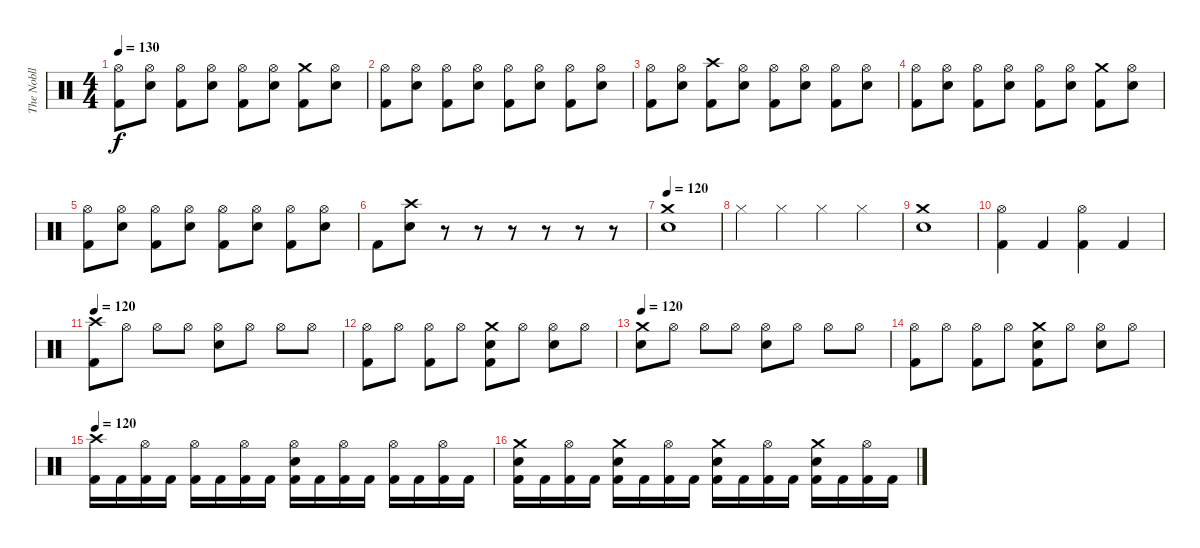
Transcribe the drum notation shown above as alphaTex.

\track ("The Nobll" "The Nobll") {instrument percussion}
\staff {score}
\articulation defaults
\ts (4 4)
\tempo 130
\clef neutral
\ks c
("Hi-Hat (open)" "Kick (hit) 2").8{dy f} ("Hi-Hat (open)" "Snare (hit) 2").8 ("Hi-Hat (open)" "Kick (hit) 2").8 ("Hi-Hat (open)" "Snare (hit) 2").8 ("Hi-Hat (open)" "Kick (hit) 2").8 ("Hi-Hat (open)" "Snare (hit) 2").8 ("Crash medium (hit)" "Kick (hit) 2").8 ("Hi-Hat (open)" "Snare (hit) 2").8 |
("Hi-Hat (open)" "Kick (hit) 2").8 ("Hi-Hat (open)" "Snare (hit) 2").8 ("Hi-Hat (open)" "Kick (hit) 2").8 ("Hi-Hat (open)" "Snare (hit) 2").8 ("Hi-Hat (open)" "Kick (hit) 2").8 ("Hi-Hat (open)" "Snare (hit) 2").8 ("Hi-Hat (open)" "Kick (hit) 2").8 ("Hi-Hat (open)" "Snare (hit) 2").8 |
("Hi-Hat (open)" "Kick (hit) 2").8 ("Hi-Hat (open)" "Snare (hit) 2").8 ("Crash high (hit)" "Kick (hit) 2").8 ("Hi-Hat (open)" "Snare (hit) 2").8 ("Hi-Hat (open)" "Kick (hit) 2").8 ("Hi-Hat (open)" "Snare (hit) 2").8 ("Hi-Hat (open)" "Kick (hit) 2").8 ("Hi-Hat (open)" "Snare (hit) 2").8 |
("Hi-Hat (open)" "Kick (hit) 2").8 ("Hi-Hat (open)" "Snare (hit) 2").8 ("Hi-Hat (open)" "Kick (hit) 2").8 ("Hi-Hat (open)" "Snare (hit) 2").8 ("Hi-Hat (open)" "Kick (hit) 2").8 ("Hi-Hat (open)" "Snare (hit) 2").8 ("Crash medium (hit)" "Kick (hit) 2").8 ("Hi-Hat (open)" "Snare (hit) 2").8 |
("Hi-Hat (open)" "Kick (hit) 2").8 ("Hi-Hat (open)" "Snare (hit) 2").8 ("Hi-Hat (open)" "Kick (hit) 2").8 ("Hi-Hat (open)" "Snare (hit) 2").8 ("Hi-Hat (open)" "Kick (hit) 2").8 ("Hi-Hat (open)" "Snare (hit) 2").8 ("Hi-Hat (open)" "Kick (hit) 2").8 ("Hi-Hat (open)" "Snare (hit) 2").8 |
"Kick (hit) 2".8 ("Crash high (hit)" "Snare (hit) 2").8 r.8 r.8 r.8 r.8 r.8 r.8 |
\tempo 120
("Crash medium (hit)" "Snare (hit) 2").1 |
"Hi-Hat (closed)".4 "Hi-Hat (closed)".4 "Hi-Hat (closed)".4 "Hi-Hat (closed)".4 |
("Crash medium (hit)" "Snare (hit) 2").1 |
("Hi-Hat (open)" "Kick (hit) 2").4 "Kick (hit) 2".4 ("Hi-Hat (open)" "Kick (hit) 2").4 "Kick (hit) 2".4 |
\tempo 120
("Crash high (hit)" "Kick (hit) 2").8 "Hi-Hat (open)".8 "Hi-Hat (open)".8 "Hi-Hat (open)".8 ("Hi-Hat (open)" "Snare (hit) 2").8 "Hi-Hat (open)".8 "Hi-Hat (open)".8 "Hi-Hat (open)".8 |
("Hi-Hat (open)" "Kick (hit) 2").8 "Hi-Hat (open)".8 ("Hi-Hat (open)" "Kick (hit) 2").8 "Hi-Hat (open)".8 ("Crash medium (hit)" "Snare (hit) 2" "Kick (hit) 2").8 "Hi-Hat (open)".8 ("Hi-Hat (open)" "Snare (hit) 2").8 "Hi-Hat (open)".8 |
\tempo 120
("Crash medium (hit)" "Snare (hit) 2").8 "Hi-Hat (open)".8 "Hi-Hat (open)".8 "Hi-Hat (open)".8 ("Hi-Hat (open)" "Snare (hit) 2").8 "Hi-Hat (open)".8 "Hi-Hat (open)".8 "Hi-Hat (open)".8 |
("Hi-Hat (open)" "Kick (hit) 2").8 "Hi-Hat (open)".8 ("Hi-Hat (open)" "Kick (hit) 2").8 "Hi-Hat (open)".8 ("Crash medium (hit)" "Snare (hit) 2" "Kick (hit) 2").8 "Hi-Hat (open)".8 ("Hi-Hat (open)" "Snare (hit) 2").8 "Hi-Hat (open)".8 |
\tempo 120
("Crash high (hit)" "Kick (hit) 2").16 "Kick (hit) 2".16 ("Hi-Hat (open)" "Kick (hit) 2").16 "Kick (hit) 2".16 ("Hi-Hat (open)" "Kick (hit) 2").16 "Kick (hit) 2".16 ("Hi-Hat (open)" "Kick (hit) 2").16 "Kick (hit) 2".16 ("Hi-Hat (open)" "Snare (hit) 2" "Kick (hit) 2").16 "Kick (hit) 2".16 ("Hi-Hat (open)" "Kick (hit) 2").16 "Kick (hit) 2".16 ("Hi-Hat (open)" "Kick (hit) 2").16 "Kick (hit) 2".16 ("Hi-Hat (open)" "Kick (hit) 2").16 "Kick (hit) 2".16 |
("Crash medium (hit)" "Snare (hit) 2" "Kick (hit) 2").16 "Kick (hit) 2".16 ("Hi-Hat (open)" "Kick (hit) 2").16 "Kick (hit) 2".16 ("Crash medium (hit)" "Snare (hit) 2" "Kick (hit) 2").16 "Kick (hit) 2".16 ("Hi-Hat (open)" "Kick (hit) 2").16 "Kick (hit) 2".16 ("Crash medium (hit)" "Snare (hit) 2" "Kick (hit) 2").16 "Kick (hit) 2".16 ("Hi-Hat (open)" "Kick (hit) 2").16 "Kick (hit) 2".16 ("Crash medium (hit)" "Snare (hit) 2" "Kick (hit) 2").16 "Kick (hit) 2".16 ("Hi-Hat (open)" "Kick (hit) 2").16 "Kick (hit) 2".16
